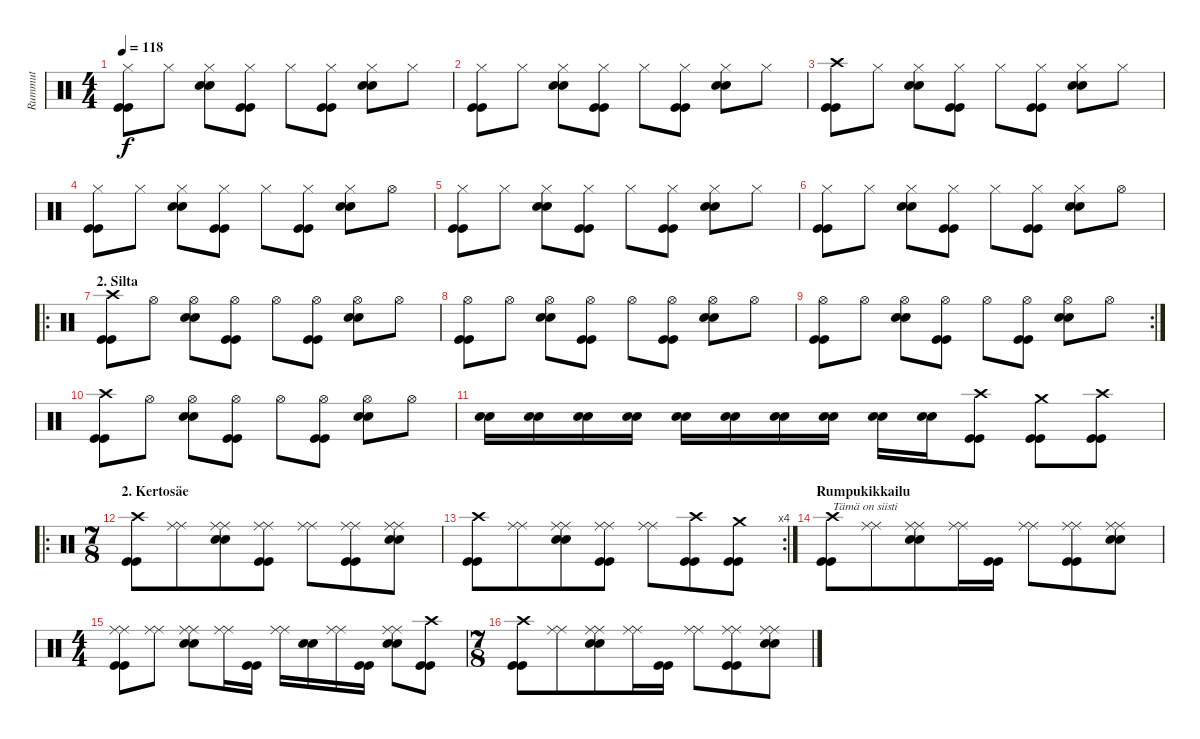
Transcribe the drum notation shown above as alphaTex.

\track ("Rummut" "Rummut") {instrument percussion}
\staff {score}
\articulation defaults
\ts (4 4)
\tempo 118
\clef neutral
\ks c
("Hi-Hat (closed)" "Kick (hit)" "Kick (hit)").8{dy f} "Hi-Hat (closed)".8 ("Hi-Hat (closed)" "Snare (hit) 2" "Snare (hit) 2").8 ("Hi-Hat (closed)" "Kick (hit)" "Kick (hit)").8 "Hi-Hat (closed)".8 ("Hi-Hat (closed)" "Kick (hit)" "Kick (hit)").8 ("Hi-Hat (closed)" "Snare (hit) 2" "Snare (hit) 2").8 "Hi-Hat (closed)".8 |
("Hi-Hat (closed)" "Kick (hit)" "Kick (hit)").8 "Hi-Hat (closed)".8 ("Hi-Hat (closed)" "Snare (hit) 2" "Snare (hit) 2").8 ("Hi-Hat (closed)" "Kick (hit)" "Kick (hit)").8 "Hi-Hat (closed)".8 ("Hi-Hat (closed)" "Kick (hit)" "Kick (hit)").8 ("Hi-Hat (closed)" "Snare (hit) 2" "Snare (hit) 2").8 "Hi-Hat (closed)".8 |
("Crash high (hit)" "Kick (hit)" "Kick (hit)").8 "Hi-Hat (closed)".8 ("Hi-Hat (closed)" "Snare (hit) 2" "Snare (hit) 2").8 ("Hi-Hat (closed)" "Kick (hit)" "Kick (hit)").8 "Hi-Hat (closed)".8 ("Hi-Hat (closed)" "Kick (hit)" "Kick (hit)").8 ("Hi-Hat (closed)" "Snare (hit) 2" "Snare (hit) 2").8 "Hi-Hat (closed)".8 |
("Hi-Hat (closed)" "Kick (hit)" "Kick (hit)").8 "Hi-Hat (closed)".8 ("Hi-Hat (closed)" "Snare (hit) 2" "Snare (hit) 2").8 ("Hi-Hat (closed)" "Kick (hit)" "Kick (hit)").8 "Hi-Hat (closed)".8 ("Hi-Hat (closed)" "Kick (hit)" "Kick (hit)").8 ("Hi-Hat (closed)" "Snare (hit) 2" "Snare (hit) 2").8 "Hi-Hat (open)".8 |
("Hi-Hat (closed)" "Kick (hit)" "Kick (hit)").8 "Hi-Hat (closed)".8 ("Hi-Hat (closed)" "Snare (hit) 2" "Snare (hit) 2").8 ("Hi-Hat (closed)" "Kick (hit)" "Kick (hit)").8 "Hi-Hat (closed)".8 ("Hi-Hat (closed)" "Kick (hit)" "Kick (hit)").8 ("Hi-Hat (closed)" "Snare (hit) 2" "Snare (hit) 2").8 "Hi-Hat (closed)".8 |
("Hi-Hat (closed)" "Kick (hit)" "Kick (hit)").8 "Hi-Hat (closed)".8 ("Hi-Hat (closed)" "Snare (hit) 2" "Snare (hit) 2").8 ("Hi-Hat (closed)" "Kick (hit)" "Kick (hit)").8 "Hi-Hat (closed)".8 ("Hi-Hat (closed)" "Kick (hit)" "Kick (hit)").8 ("Hi-Hat (closed)" "Snare (hit) 2" "Snare (hit) 2").8 "Hi-Hat (open)".8 |
\ro
\section ("" "2. Silta")
("Crash high (hit)" "Kick (hit)" "Kick (hit)").8 "Hi-Hat (open)".8 ("Hi-Hat (open)" "Snare (hit) 2" "Snare (hit) 2").8 ("Hi-Hat (open)" "Kick (hit)" "Kick (hit)").8 "Hi-Hat (open)".8 ("Hi-Hat (open)" "Kick (hit)" "Kick (hit)").8 ("Hi-Hat (open)" "Snare (hit) 2" "Snare (hit) 2").8 "Hi-Hat (open)".8 |
("Hi-Hat (open)" "Kick (hit)" "Kick (hit)").8 "Hi-Hat (open)".8 ("Hi-Hat (open)" "Snare (hit) 2" "Snare (hit) 2").8 ("Hi-Hat (open)" "Kick (hit)" "Kick (hit)").8 "Hi-Hat (open)".8 ("Hi-Hat (open)" "Kick (hit)" "Kick (hit)").8 ("Hi-Hat (open)" "Snare (hit) 2" "Snare (hit) 2").8 "Hi-Hat (open)".8 |
\rc 2
("Hi-Hat (open)" "Kick (hit)" "Kick (hit)").8 "Hi-Hat (open)".8 ("Hi-Hat (open)" "Snare (hit) 2" "Snare (hit) 2").8 ("Hi-Hat (open)" "Kick (hit)" "Kick (hit)").8 "Hi-Hat (open)".8 ("Hi-Hat (open)" "Kick (hit)" "Kick (hit)").8 ("Hi-Hat (open)" "Snare (hit) 2" "Snare (hit) 2").8 "Hi-Hat (open)".8 |
("Crash high (hit)" "Kick (hit)" "Kick (hit)").8 "Hi-Hat (open)".8 ("Hi-Hat (open)" "Snare (hit) 2" "Snare (hit) 2").8 ("Hi-Hat (open)" "Kick (hit)" "Kick (hit)").8 "Hi-Hat (open)".8 ("Hi-Hat (open)" "Kick (hit)" "Kick (hit)").8 ("Hi-Hat (open)" "Snare (hit) 2" "Snare (hit) 2").8 "Hi-Hat (open)".8 |
("Snare (hit) 2" "Snare (hit) 2").16 ("Snare (hit) 2" "Snare (hit) 2").16 ("Snare (hit) 2" "Snare (hit) 2").16 ("Snare (hit) 2" "Snare (hit) 2").16 ("Snare (hit) 2" "Snare (hit) 2").16 ("Snare (hit) 2" "Snare (hit) 2").16 ("Snare (hit) 2" "Snare (hit) 2").16 ("Snare (hit) 2" "Snare (hit) 2").16 ("Snare (hit) 2" "Snare (hit) 2").16 ("Snare (hit) 2" "Snare (hit) 2").16 ("Crash high (hit)" "Kick (hit)" "Kick (hit)").8 ("Crash medium (hit)" "Kick (hit)" "Kick (hit)").8 ("Crash high (hit)" "Kick (hit)" "Kick (hit)").8 |
\ro
\ts (7 8)
\section ("" "2. Kertosäe")
("Crash high (hit)" "Kick (hit)" "Kick (hit)").8 ("Ride (middle)" "Ride (middle)").8 ("Ride (middle)" "Ride (middle)" "Snare (hit) 2" "Snare (hit) 2").8 ("Ride (middle)" "Ride (middle)" "Kick (hit)" "Kick (hit)").8 ("Ride (middle)" "Ride (middle)").8 ("Ride (middle)" "Ride (middle)" "Kick (hit)" "Kick (hit)").8 ("Ride (middle)" "Ride (middle)" "Snare (hit) 2" "Snare (hit) 2").8 |
\rc 4
("Crash high (hit)" "Kick (hit)" "Kick (hit)").8 ("Ride (middle)" "Ride (middle)").8 ("Ride (middle)" "Ride (middle)" "Snare (hit) 2" "Snare (hit) 2").8 ("Ride (middle)" "Ride (middle)" "Kick (hit)" "Kick (hit)").8 ("Ride (middle)" "Ride (middle)").8 ("Crash high (hit)" "Kick (hit)" "Kick (hit)").8 ("Crash medium (hit)" "Kick (hit)" "Kick (hit)").8 |
\section ("" "Rumpukikkailu")
("Crash high (hit)" "Kick (hit)" "Kick (hit)").8{txt "Tämä on siisti"} ("Ride (middle)" "Ride (middle)").8 ("Ride (middle)" "Ride (middle)" "Snare (hit) 2" "Snare (hit) 2").8 ("Ride (middle)" "Ride (middle)").16 ("Kick (hit)" "Kick (hit)").16 ("Ride (middle)" "Ride (middle)").8 ("Ride (middle)" "Ride (middle)" "Kick (hit)" "Kick (hit)").8 ("Ride (middle)" "Ride (middle)" "Snare (hit) 2" "Snare (hit) 2").8 |
\ts (4 4)
("Ride (middle)" "Ride (middle)" "Kick (hit)" "Kick (hit)").8 ("Ride (middle)" "Ride (middle)").8 ("Ride (middle)" "Ride (middle)" "Snare (hit) 2" "Snare (hit) 2").8 ("Ride (middle)" "Ride (middle)").16 ("Kick (hit)" "Kick (hit)").16 ("Ride (middle)" "Ride (middle)").16 ("Snare (hit) 2" "Snare (hit) 2").16 ("Ride (middle)" "Ride (middle)").16 ("Kick (hit)" "Kick (hit)").16 ("Ride (middle)" "Ride (middle)" "Snare (hit) 2" "Snare (hit) 2").8 ("Crash high (hit)" "Kick (hit)" "Kick (hit)").8 |
\ts (7 8)
("Crash high (hit)" "Kick (hit)" "Kick (hit)").8 ("Ride (middle)" "Ride (middle)").8 ("Ride (middle)" "Ride (middle)" "Snare (hit) 2" "Snare (hit) 2").8 ("Ride (middle)" "Ride (middle)").16 ("Kick (hit)" "Kick (hit)").16 ("Ride (middle)" "Ride (middle)").8 ("Ride (middle)" "Ride (middle)" "Kick (hit)" "Kick (hit)").8 ("Ride (middle)" "Ride (middle)" "Snare (hit) 2" "Snare (hit) 2").8
